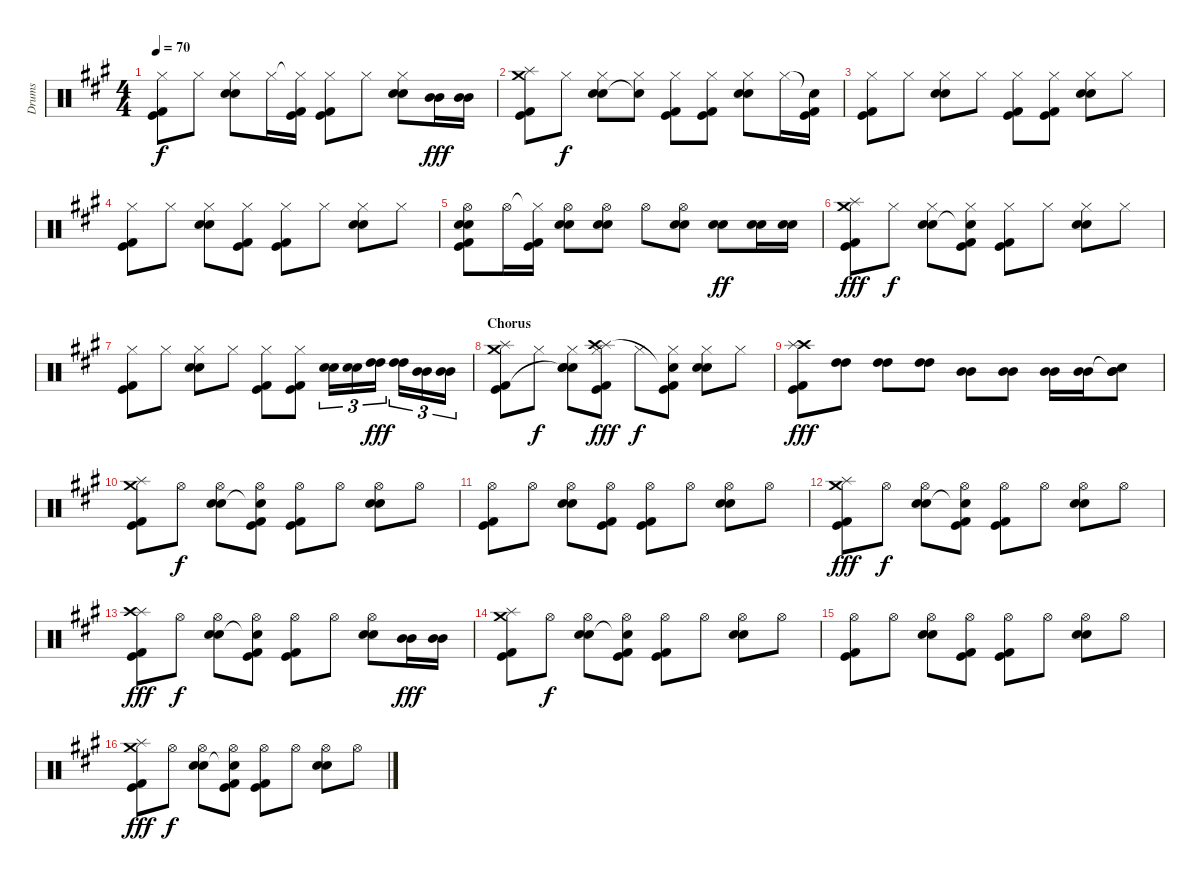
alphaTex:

\track ("Drums" "Drums") {instrument percussion}
\staff {score}
\articulation defaults
\ts (4 4)
\tempo 70
\clef neutral
\ks a
("Hi-Hat (closed)" "Kick (hit)" "Kick (hit) 2").8{dy f} "Hi-Hat (closed)".8 ("Hi-Hat (closed)" "Electric Snare (hit)" "Snare (hit) 2").8 "Hi-Hat (closed)".16 ("Hi-Hat (closed)"{t} "Kick (hit)" "Kick (hit) 2").16 ("Hi-Hat (closed)" "Kick (hit)" "Kick (hit) 2").8 "Hi-Hat (closed)".8 ("Hi-Hat (closed)" "Electric Snare (hit)" "Snare (hit) 2").8 ("Mid Tom (hit)" "Mid Tom (hit)").16{dy fff} ("Mid Tom (hit)" "Mid Tom (hit)").16 |
("Splash (hit)" "Crash medium (hit)" "Kick (hit)" "Kick (hit) 2").8 "Hi-Hat (closed)".8{dy f} ("Hi-Hat (closed)" "Electric Snare (hit)" "Snare (hit) 2").8 ("Hi-Hat (closed)" "Snare (hit)"{t}).8 ("Hi-Hat (closed)" "Kick (hit)" "Kick (hit) 2").8 ("Hi-Hat (closed)" "Kick (hit)" "Kick (hit) 2").8 ("Hi-Hat (closed)" "Electric Snare (hit)" "Snare (hit) 2").8 "Hi-Hat (closed)".16 ("Snare (hit)"{t} "Kick (hit)" "Kick (hit) 2").16 |
("Hi-Hat (closed)" "Kick (hit)" "Kick (hit) 2").8 "Hi-Hat (closed)".8 ("Hi-Hat (closed)" "Electric Snare (hit)" "Snare (hit) 2").8 "Hi-Hat (closed)".8 ("Hi-Hat (closed)" "Kick (hit)" "Kick (hit) 2").8 ("Hi-Hat (closed)" "Kick (hit)" "Kick (hit) 2").8 ("Hi-Hat (closed)" "Electric Snare (hit)" "Snare (hit) 2").8 "Hi-Hat (closed)".8 |
("Hi-Hat (closed)" "Kick (hit)" "Kick (hit) 2").8 "Hi-Hat (closed)".8 ("Hi-Hat (closed)" "Electric Snare (hit)" "Snare (hit) 2").8 ("Hi-Hat (closed)" "Kick (hit)" "Kick (hit) 2").8 ("Hi-Hat (closed)" "Kick (hit)" "Kick (hit) 2").8 "Hi-Hat (closed)".8 ("Hi-Hat (closed)" "Electric Snare (hit)" "Snare (hit) 2").8 "Hi-Hat (closed)".8 |
("Hi-Hat (open)" "Electric Snare (hit)" "Snare (hit) 2" "Kick (hit)" "Kick (hit) 2").8 "Hi-Hat (open)".16 ("Hi-Hat (closed)"{t} "Kick (hit)" "Kick (hit) 2").16 ("Hi-Hat (open)" "Electric Snare (hit)" "Snare (hit) 2").8 ("Hi-Hat (open)" "Electric Snare (hit)" "Snare (hit) 2").8 "Hi-Hat (open)".8 ("Hi-Hat (open)" "Electric Snare (hit)" "Snare (hit) 2").8 ("Electric Snare (hit)" "Snare (hit) 2").8{dy ff} ("Electric Snare (hit)" "Snare (hit) 2").16 ("Electric Snare (hit)" "Snare (hit) 2").16 |
("Splash (hit)" "Crash medium (hit)" "Kick (hit)" "Kick (hit) 2").8{dy fff} "Hi-Hat (closed)".8{dy f} ("Hi-Hat (closed)" "Electric Snare (hit)" "Snare (hit) 2").8 ("Hi-Hat (closed)" "Snare (hit)"{t} "Kick (hit)" "Kick (hit) 2").8 ("Hi-Hat (closed)" "Kick (hit)" "Kick (hit) 2").8 "Hi-Hat (closed)".8 ("Hi-Hat (closed)" "Electric Snare (hit)" "Snare (hit) 2").8 "Hi-Hat (closed)".8 |
("Hi-Hat (closed)" "Kick (hit)" "Kick (hit) 2").8 "Hi-Hat (closed)".8 ("Hi-Hat (closed)" "Electric Snare (hit)" "Snare (hit) 2").8 "Hi-Hat (closed)".8 ("Hi-Hat (closed)" "Kick (hit)" "Kick (hit) 2").8 ("Hi-Hat (closed)" "Kick (hit)" "Kick (hit) 2").8 ("Electric Snare (hit)" "Snare (hit) 2").16{tu (3 2)} ("Electric Snare (hit)" "Snare (hit) 2").16{tu (3 2)} ("High Tom (hit)" "High Tom (hit)").16{tu (3 2) dy fff} ("High Tom (hit)" "High Tom (hit)").16{tu (3 2)} ("Mid Tom (hit)" "Mid Tom (hit)").16{tu (3 2)} ("Mid Tom (hit)" "Mid Tom (hit)").16{tu (3 2)} |
\section ("" "Chorus")
("Splash (hit)" "Crash medium (hit)" "Kick (hit)" "Kick (hit) 2").8 "Hi-Hat (closed)".8{dy f} ("Hi-Hat (closed)" "Electric Snare (hit)" "Snare (hit) 2" "Snare (hit)"{t}).8 ("Hi-Hat (closed)" "Splash (hit)" "Crash high (hit)" "Kick (hit)" "Kick (hit) 2").8{dy fff} "Hi-Hat (closed)".8{dy f} ("Hi-Hat (closed)" "Snare (hit)"{t} "Kick (hit)" "Kick (hit) 2").8 ("Hi-Hat (closed)" "Electric Snare (hit)" "Snare (hit) 2").8 "Hi-Hat (closed)".8 |
("Crash high (hit)" "Splash (hit)" "Kick (hit)" "Kick (hit) 2").8{dy fff} ("High Tom (hit)" "High Tom (hit)").8 ("High Tom (hit)" "High Tom (hit)").8 ("High Tom (hit)" "High Tom (hit)").8 ("Mid Tom (hit)" "Mid Tom (hit)").8 ("Mid Tom (hit)" "Mid Tom (hit)").8 ("Mid Tom (hit)" "Mid Tom (hit)").16 ("Mid Tom (hit)" "Mid Tom (hit)").16 ("Snare (hit)"{t} "Mid Tom (hit)" "Mid Tom (hit)").8 |
("Splash (hit)" "Crash medium (hit)" "Kick (hit)" "Kick (hit) 2").8 "Hi-Hat (open)".8{dy f} ("Hi-Hat (open)" "Electric Snare (hit)" "Snare (hit) 2").8 ("Hi-Hat (open)" "Snare (hit)"{t} "Kick (hit)" "Kick (hit) 2").8 ("Hi-Hat (open)" "Kick (hit)" "Kick (hit) 2").8 "Hi-Hat (open)".8 ("Hi-Hat (open)" "Electric Snare (hit)" "Snare (hit) 2").8 "Hi-Hat (open)".8 |
("Hi-Hat (open)" "Kick (hit)" "Kick (hit) 2").8 "Hi-Hat (open)".8 ("Hi-Hat (open)" "Electric Snare (hit)" "Snare (hit) 2").8 ("Hi-Hat (open)" "Kick (hit)" "Kick (hit) 2").8 ("Hi-Hat (open)" "Kick (hit)" "Kick (hit) 2").8 "Hi-Hat (open)".8 ("Hi-Hat (open)" "Electric Snare (hit)" "Snare (hit) 2").8 "Hi-Hat (open)".8 |
("Splash (hit)" "Crash medium (hit)" "Kick (hit)" "Kick (hit) 2").8{dy fff} "Hi-Hat (open)".8{dy f} ("Hi-Hat (open)" "Electric Snare (hit)" "Snare (hit) 2").8 ("Hi-Hat (open)" "Snare (hit)"{t} "Kick (hit)" "Kick (hit) 2").8 ("Hi-Hat (open)" "Kick (hit)" "Kick (hit) 2").8 "Hi-Hat (open)".8 ("Hi-Hat (open)" "Electric Snare (hit)" "Snare (hit) 2").8 "Hi-Hat (open)".8 |
("Splash (hit)" "Crash high (hit)" "Kick (hit)" "Kick (hit) 2").8{dy fff} "Hi-Hat (open)".8{dy f} ("Hi-Hat (open)" "Electric Snare (hit)" "Snare (hit) 2").8 ("Hi-Hat (open)" "Snare (hit)"{t} "Kick (hit)" "Kick (hit) 2").8 ("Hi-Hat (open)" "Kick (hit)" "Kick (hit) 2").8 "Hi-Hat (open)".8 ("Hi-Hat (open)" "Electric Snare (hit)" "Snare (hit) 2").8 ("Mid Tom (hit)" "Mid Tom (hit)").16{dy fff} ("Mid Tom (hit)" "Mid Tom (hit)").16 |
("Splash (hit)" "Crash medium (hit)" "Kick (hit)" "Kick (hit) 2").8 "Hi-Hat (open)".8{dy f} ("Hi-Hat (open)" "Electric Snare (hit)" "Snare (hit) 2").8 ("Hi-Hat (open)" "Snare (hit)"{t} "Kick (hit)" "Kick (hit) 2").8 ("Hi-Hat (open)" "Kick (hit)" "Kick (hit) 2").8 "Hi-Hat (open)".8 ("Hi-Hat (open)" "Electric Snare (hit)" "Snare (hit) 2").8 "Hi-Hat (open)".8 |
("Hi-Hat (open)" "Kick (hit)" "Kick (hit) 2").8 "Hi-Hat (open)".8 ("Hi-Hat (open)" "Electric Snare (hit)" "Snare (hit) 2").8 ("Hi-Hat (open)" "Kick (hit)" "Kick (hit) 2").8 ("Hi-Hat (open)" "Kick (hit)" "Kick (hit) 2").8 "Hi-Hat (open)".8 ("Hi-Hat (open)" "Electric Snare (hit)" "Snare (hit) 2").8 "Hi-Hat (open)".8 |
("Splash (hit)" "Crash medium (hit)" "Kick (hit)" "Kick (hit) 2").8{dy fff} "Hi-Hat (open)".8{dy f} ("Hi-Hat (open)" "Electric Snare (hit)" "Snare (hit) 2").8 ("Hi-Hat (open)" "Snare (hit)"{t} "Kick (hit)" "Kick (hit) 2").8 ("Hi-Hat (open)" "Kick (hit)" "Kick (hit) 2").8 "Hi-Hat (open)".8 ("Hi-Hat (open)" "Electric Snare (hit)" "Snare (hit) 2").8 "Hi-Hat (open)".8
